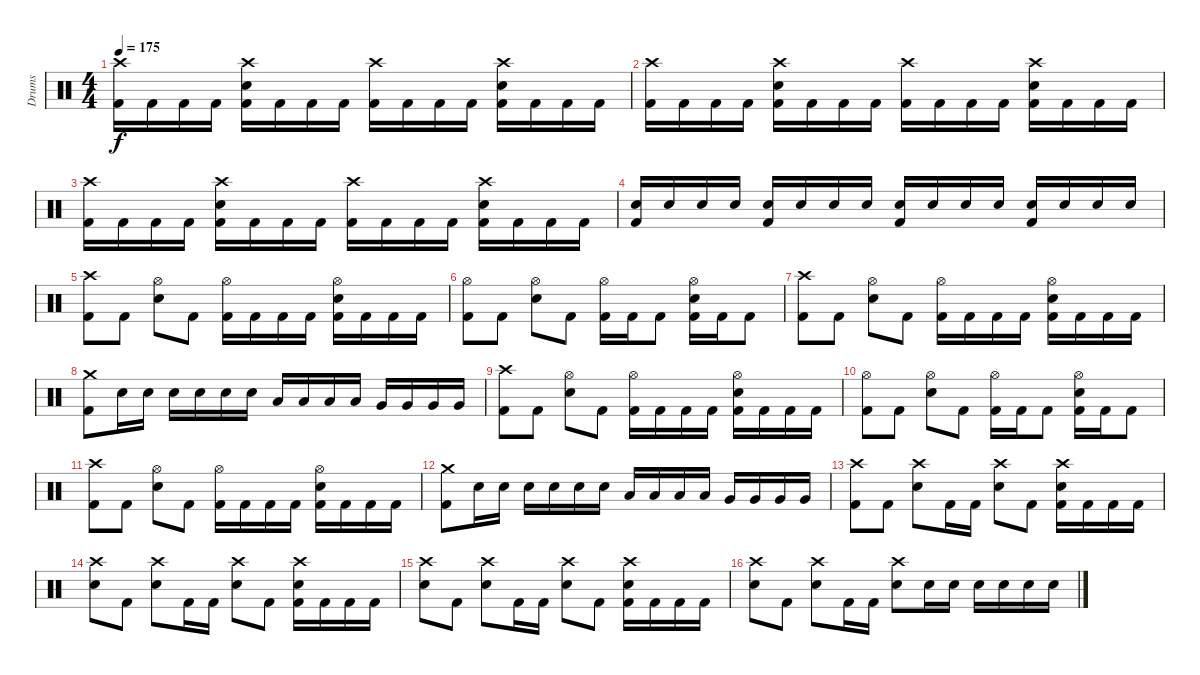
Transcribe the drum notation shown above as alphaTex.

\track ("Drums" "Drums") {instrument percussion}
\staff {score}
\articulation defaults
\ts (4 4)
\tempo 175
\clef neutral
\ks c
("Crash high (hit)" "Kick (hit) 2").16{dy f} "Kick (hit) 2".16 "Kick (hit) 2".16 "Kick (hit) 2".16 ("Crash high (hit)" "Snare (hit) 2" "Kick (hit) 2").16 "Kick (hit) 2".16 "Kick (hit) 2".16 "Kick (hit) 2".16 ("Crash high (hit)" "Kick (hit) 2").16 "Kick (hit) 2".16 "Kick (hit) 2".16 "Kick (hit) 2".16 ("Crash high (hit)" "Snare (hit) 2" "Kick (hit) 2").16 "Kick (hit) 2".16 "Kick (hit) 2".16 "Kick (hit) 2".16 |
("Crash high (hit)" "Kick (hit) 2").16 "Kick (hit) 2".16 "Kick (hit) 2".16 "Kick (hit) 2".16 ("Crash high (hit)" "Snare (hit) 2" "Kick (hit) 2").16 "Kick (hit) 2".16 "Kick (hit) 2".16 "Kick (hit) 2".16 ("Crash high (hit)" "Kick (hit) 2").16 "Kick (hit) 2".16 "Kick (hit) 2".16 "Kick (hit) 2".16 ("Crash high (hit)" "Snare (hit) 2" "Kick (hit) 2").16 "Kick (hit) 2".16 "Kick (hit) 2".16 "Kick (hit) 2".16 |
("Crash high (hit)" "Kick (hit) 2").16 "Kick (hit) 2".16 "Kick (hit) 2".16 "Kick (hit) 2".16 ("Crash high (hit)" "Snare (hit) 2" "Kick (hit) 2").16 "Kick (hit) 2".16 "Kick (hit) 2".16 "Kick (hit) 2".16 ("Crash high (hit)" "Kick (hit) 2").16 "Kick (hit) 2".16 "Kick (hit) 2".16 "Kick (hit) 2".16 ("Crash high (hit)" "Snare (hit) 2" "Kick (hit) 2").16 "Kick (hit) 2".16 "Kick (hit) 2".16 "Kick (hit) 2".16 |
("Kick (hit) 2" "Snare (hit) 2").16 "Snare (hit) 2".16 "Snare (hit) 2".16 "Snare (hit) 2".16 ("Kick (hit) 2" "Snare (hit) 2").16 "Snare (hit) 2".16 "Snare (hit) 2".16 "Snare (hit) 2".16 ("Kick (hit) 2" "Snare (hit) 2").16 "Snare (hit) 2".16 "Snare (hit) 2".16 "Snare (hit) 2".16 ("Kick (hit) 2" "Snare (hit) 2").16 "Snare (hit) 2".16 "Snare (hit) 2".16 "Snare (hit) 2".16 |
("Crash high (hit)" "Kick (hit) 2").8 "Kick (hit) 2".8 ("Hi-Hat (open)" "Snare (hit) 2").8 "Kick (hit) 2".8 ("Hi-Hat (open)" "Kick (hit) 2").16 "Kick (hit) 2".16 "Kick (hit) 2".16 "Kick (hit) 2".16 ("Hi-Hat (open)" "Snare (hit) 2" "Kick (hit) 2").16 "Kick (hit) 2".16 "Kick (hit) 2".16 "Kick (hit) 2".16 |
("Hi-Hat (open)" "Kick (hit) 2").8 "Kick (hit) 2".8 ("Hi-Hat (open)" "Snare (hit) 2").8 "Kick (hit) 2".8 ("Hi-Hat (open)" "Kick (hit) 2").16 "Kick (hit) 2".16 "Kick (hit) 2".8 ("Hi-Hat (open)" "Snare (hit) 2" "Kick (hit) 2").16 "Kick (hit) 2".16 "Kick (hit) 2".8 |
("Crash high (hit)" "Kick (hit) 2").8 "Kick (hit) 2".8 ("Hi-Hat (open)" "Snare (hit) 2").8 "Kick (hit) 2".8 ("Hi-Hat (open)" "Kick (hit) 2").16 "Kick (hit) 2".16 "Kick (hit) 2".16 "Kick (hit) 2".16 ("Hi-Hat (open)" "Snare (hit) 2" "Kick (hit) 2").16 "Kick (hit) 2".16 "Kick (hit) 2".16 "Kick (hit) 2".16 |
("Crash medium (hit)" "Kick (hit) 2").8 "Snare (hit) 2".16 "Snare (hit) 2".16 "Snare (hit) 2".16 "Snare (hit) 2".16 "Snare (hit) 2".16 "Snare (hit) 2".16 "Low Tom (hit)".16 "Low Tom (hit)".16 "Low Tom (hit)".16 "Low Tom (hit)".16 "Very Low Tom (hit)".16 "Very Low Tom (hit)".16 "Very Low Tom (hit)".16 "Very Low Tom (hit)".16 |
("Crash high (hit)" "Kick (hit) 2").8 "Kick (hit) 2".8 ("Hi-Hat (open)" "Snare (hit) 2").8 "Kick (hit) 2".8 ("Hi-Hat (open)" "Kick (hit) 2").16 "Kick (hit) 2".16 "Kick (hit) 2".16 "Kick (hit) 2".16 ("Hi-Hat (open)" "Snare (hit) 2" "Kick (hit) 2").16 "Kick (hit) 2".16 "Kick (hit) 2".16 "Kick (hit) 2".16 |
("Hi-Hat (open)" "Kick (hit) 2").8 "Kick (hit) 2".8 ("Hi-Hat (open)" "Snare (hit) 2").8 "Kick (hit) 2".8 ("Hi-Hat (open)" "Kick (hit) 2").16 "Kick (hit) 2".16 "Kick (hit) 2".8 ("Hi-Hat (open)" "Snare (hit) 2" "Kick (hit) 2").16 "Kick (hit) 2".16 "Kick (hit) 2".8 |
("Crash high (hit)" "Kick (hit) 2").8 "Kick (hit) 2".8 ("Hi-Hat (open)" "Snare (hit) 2").8 "Kick (hit) 2".8 ("Hi-Hat (open)" "Kick (hit) 2").16 "Kick (hit) 2".16 "Kick (hit) 2".16 "Kick (hit) 2".16 ("Hi-Hat (open)" "Snare (hit) 2" "Kick (hit) 2").16 "Kick (hit) 2".16 "Kick (hit) 2".16 "Kick (hit) 2".16 |
("Crash medium (hit)" "Kick (hit) 2").8 "Snare (hit) 2".16 "Snare (hit) 2".16 "Snare (hit) 2".16 "Snare (hit) 2".16 "Snare (hit) 2".16 "Snare (hit) 2".16 "Low Tom (hit)".16 "Low Tom (hit)".16 "Low Tom (hit)".16 "Low Tom (hit)".16 "Very Low Tom (hit)".16 "Very Low Tom (hit)".16 "Very Low Tom (hit)".16 "Very Low Tom (hit)".16 |
("Crash high (hit)" "Kick (hit) 2").8 "Kick (hit) 2".8 ("Crash high (hit)" "Snare (hit) 2").8 "Kick (hit) 2".16 "Kick (hit) 2".16 ("Crash high (hit)" "Snare (hit) 2").8 "Kick (hit) 2".8 ("Crash high (hit)" "Snare (hit) 2" "Kick (hit) 2").16 "Kick (hit) 2".16 "Kick (hit) 2".16 "Kick (hit) 2".16 |
("Crash high (hit)" "Snare (hit) 2").8 "Kick (hit) 2".8 ("Crash high (hit)" "Snare (hit) 2").8 "Kick (hit) 2".16 "Kick (hit) 2".16 ("Crash high (hit)" "Snare (hit) 2").8 "Kick (hit) 2".8 ("Crash high (hit)" "Snare (hit) 2" "Kick (hit) 2").16 "Kick (hit) 2".16 "Kick (hit) 2".16 "Kick (hit) 2".16 |
("Crash high (hit)" "Snare (hit) 2").8 "Kick (hit) 2".8 ("Crash high (hit)" "Snare (hit) 2").8 "Kick (hit) 2".16 "Kick (hit) 2".16 ("Crash high (hit)" "Snare (hit) 2").8 "Kick (hit) 2".8 ("Crash high (hit)" "Snare (hit) 2" "Kick (hit) 2").16 "Kick (hit) 2".16 "Kick (hit) 2".16 "Kick (hit) 2".16 |
("Crash high (hit)" "Snare (hit) 2").8 "Kick (hit) 2".8 ("Crash high (hit)" "Snare (hit) 2").8 "Kick (hit) 2".16 "Kick (hit) 2".16 ("Crash high (hit)" "Snare (hit) 2").8 "Snare (hit) 2".16 "Snare (hit) 2".16 "Snare (hit) 2".16 "Snare (hit) 2".16 "Snare (hit) 2".16 "Snare (hit) 2".16
